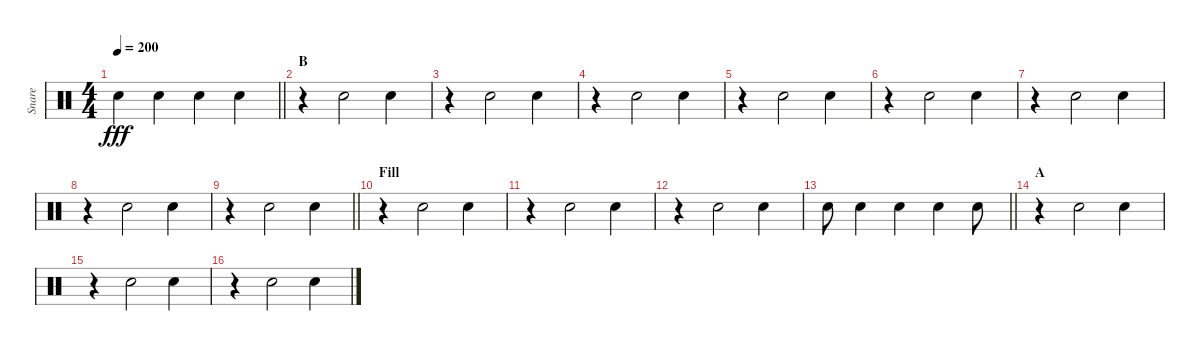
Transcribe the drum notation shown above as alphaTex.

\track ("Snare" "Snare") {instrument percussion}
\staff {score}
\articulation defaults
\ts (4 4)
\tempo 200
\clef neutral
\barLineRight lightlight
\ks c "Snare (hit) 2".4{dy fff} "Snare (hit) 2".4 "Snare (hit) 2".4 "Snare (hit) 2".4
|
\section ("" "B")
r.4 "Snare (hit) 2".2 "Snare (hit) 2".4 |
r.4 "Snare (hit) 2".2 "Snare (hit) 2".4 |
r.4 "Snare (hit) 2".2 "Snare (hit) 2".4 |
r.4 "Snare (hit) 2".2 "Snare (hit) 2".4 |
r.4 "Snare (hit) 2".2 "Snare (hit) 2".4 |
r.4 "Snare (hit) 2".2 "Snare (hit) 2".4 |
r.4 "Snare (hit) 2".2 "Snare (hit) 2".4 |
\barLineRight lightlight
r.4 "Snare (hit) 2".2 "Snare (hit) 2".4 |
\section ("" "Fill")
r.4 "Snare (hit) 2".2 "Snare (hit) 2".4 |
r.4 "Snare (hit) 2".2 "Snare (hit) 2".4 |
r.4 "Snare (hit) 2".2 "Snare (hit) 2".4 |
\barLineRight lightlight "Snare (hit) 2".8 "Snare (hit) 2".4 "Snare (hit) 2".4 "Snare (hit) 2".4 "Snare (hit) 2".8
|
\section ("" "A")
r.4 "Snare (hit) 2".2 "Snare (hit) 2".4 |
r.4 "Snare (hit) 2".2 "Snare (hit) 2".4 |
r.4 "Snare (hit) 2".2 "Snare (hit) 2".4
